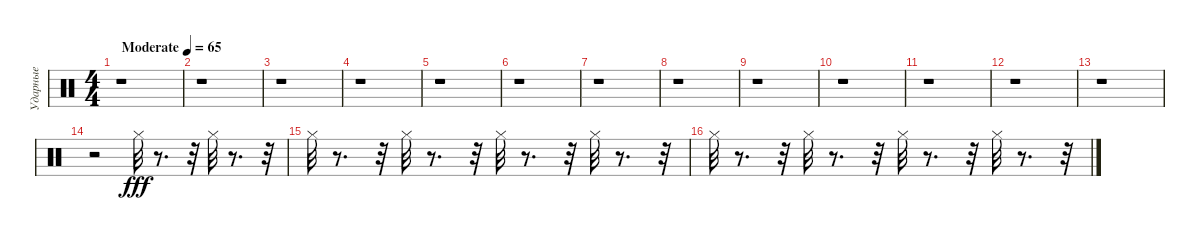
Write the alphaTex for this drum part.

\track ("Ударные" "Ударные") {instrument percussion}
\staff {score}
\articulation defaults
\ts (4 4)
\tempo (65 "Moderate")
\clef neutral
\ks c
r.1{dy fff} |
r.1 |
r.1 |
r.1 |
r.1 |
r.1 |
r.1 |
r.1 |
r.1 |
r.1 |
r.1 |
r.1 |
r.1 |
r.2 "Hi-Hat (closed)".32 r.8{d} r.32 "Hi-Hat (closed)".32 r.8{d} r.32 |
"Hi-Hat (closed)".32 r.8{d} r.32 "Hi-Hat (closed)".32 r.8{d} r.32 "Hi-Hat (closed)".32 r.8{d} r.32 "Hi-Hat (closed)".32 r.8{d} r.32 |
"Hi-Hat (closed)".32 r.8{d} r.32 "Hi-Hat (closed)".32 r.8{d} r.32 "Hi-Hat (closed)".32 r.8{d} r.32 "Hi-Hat (closed)".32 r.8{d} r.32
